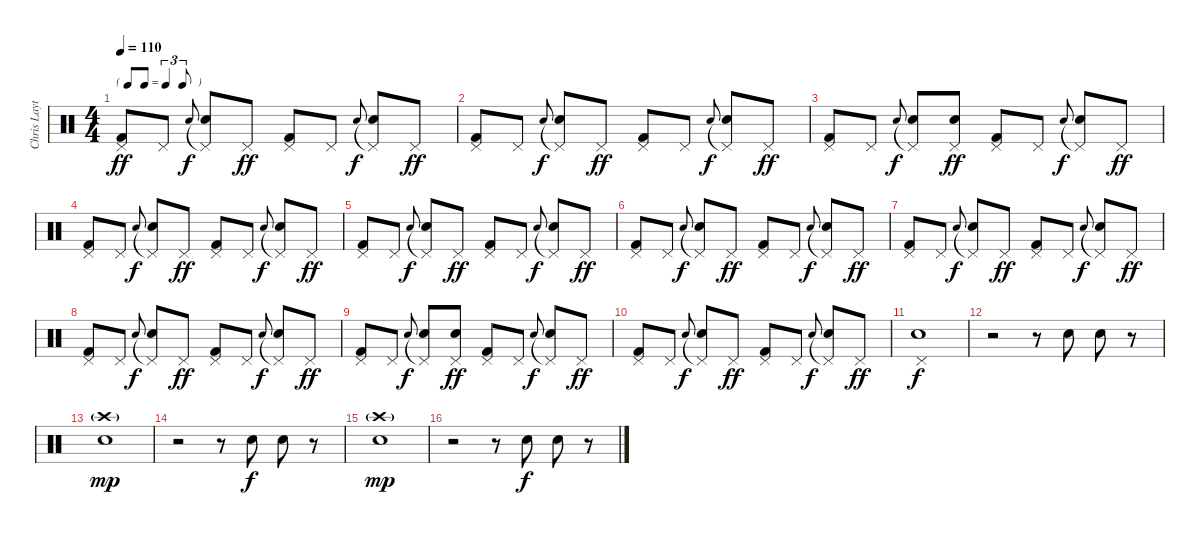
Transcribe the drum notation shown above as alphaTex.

\track ("Chris Layton" "Chris Layt") {instrument percussion}
\staff {score}
\articulation defaults
\ts (4 4)
\tf triplet8th
\tempo 110
\clef neutral
\ks c
("Pedal Hi-Hat (hit)" "Kick (hit) 2").8{dy ff} "Pedal Hi-Hat (hit)".8 "Snare (hit) 2".8{gr onbeat dy f} ("Pedal Hi-Hat (hit)"{t} "Snare (hit) 2").8 "Pedal Hi-Hat (hit)".8{dy ff} ("Pedal Hi-Hat (hit)" "Kick (hit) 2").8 "Pedal Hi-Hat (hit)".8 "Snare (hit) 2".8{gr onbeat dy f} ("Pedal Hi-Hat (hit)"{t} "Snare (hit) 2").8 "Pedal Hi-Hat (hit)".8{dy ff} |
("Pedal Hi-Hat (hit)" "Kick (hit) 2").8 "Pedal Hi-Hat (hit)".8 "Snare (hit) 2".8{gr onbeat dy f} ("Pedal Hi-Hat (hit)"{t} "Snare (hit) 2").8 "Pedal Hi-Hat (hit)".8{dy ff} ("Pedal Hi-Hat (hit)" "Kick (hit) 2").8 "Pedal Hi-Hat (hit)".8 "Snare (hit) 2".8{gr onbeat dy f} ("Pedal Hi-Hat (hit)"{t} "Snare (hit) 2").8 "Pedal Hi-Hat (hit)".8{dy ff} |
("Pedal Hi-Hat (hit)" "Kick (hit) 2").8 "Pedal Hi-Hat (hit)".8 "Snare (hit) 2".8{gr onbeat dy f} ("Pedal Hi-Hat (hit)"{t} "Snare (hit) 2").8 ("Pedal Hi-Hat (hit)" "Snare (hit) 2").8{dy ff} ("Pedal Hi-Hat (hit)" "Kick (hit) 2").8 "Pedal Hi-Hat (hit)".8 "Snare (hit) 2".8{gr onbeat dy f} ("Pedal Hi-Hat (hit)"{t} "Snare (hit) 2").8 "Pedal Hi-Hat (hit)".8{dy ff} |
("Pedal Hi-Hat (hit)" "Kick (hit) 2").8 "Pedal Hi-Hat (hit)".8 "Snare (hit) 2".8{gr onbeat dy f} ("Pedal Hi-Hat (hit)"{t} "Snare (hit) 2").8 "Pedal Hi-Hat (hit)".8{dy ff} ("Pedal Hi-Hat (hit)" "Kick (hit) 2").8 "Pedal Hi-Hat (hit)".8 "Snare (hit) 2".8{gr onbeat dy f} ("Pedal Hi-Hat (hit)"{t} "Snare (hit) 2").8 "Pedal Hi-Hat (hit)".8{dy ff} |
("Pedal Hi-Hat (hit)" "Kick (hit) 2").8 "Pedal Hi-Hat (hit)".8 "Snare (hit) 2".8{gr onbeat dy f} ("Pedal Hi-Hat (hit)"{t} "Snare (hit) 2").8 "Pedal Hi-Hat (hit)".8{dy ff} ("Pedal Hi-Hat (hit)" "Kick (hit) 2").8 "Pedal Hi-Hat (hit)".8 "Snare (hit) 2".8{gr onbeat dy f} ("Pedal Hi-Hat (hit)"{t} "Snare (hit) 2").8 "Pedal Hi-Hat (hit)".8{dy ff} |
("Pedal Hi-Hat (hit)" "Kick (hit) 2").8 "Pedal Hi-Hat (hit)".8 "Snare (hit) 2".8{gr onbeat dy f} ("Pedal Hi-Hat (hit)"{t} "Snare (hit) 2").8 "Pedal Hi-Hat (hit)".8{dy ff} ("Pedal Hi-Hat (hit)" "Kick (hit) 2").8 "Pedal Hi-Hat (hit)".8 "Snare (hit) 2".8{gr onbeat dy f} ("Pedal Hi-Hat (hit)"{t} "Snare (hit) 2").8 "Pedal Hi-Hat (hit)".8{dy ff} |
("Pedal Hi-Hat (hit)" "Kick (hit) 2").8 "Pedal Hi-Hat (hit)".8 "Snare (hit) 2".8{gr onbeat dy f} ("Pedal Hi-Hat (hit)"{t} "Snare (hit) 2").8 "Pedal Hi-Hat (hit)".8{dy ff} ("Pedal Hi-Hat (hit)" "Kick (hit) 2").8 "Pedal Hi-Hat (hit)".8 "Snare (hit) 2".8{gr onbeat dy f} ("Pedal Hi-Hat (hit)"{t} "Snare (hit) 2").8 "Pedal Hi-Hat (hit)".8{dy ff} |
("Pedal Hi-Hat (hit)" "Kick (hit) 2").8 "Pedal Hi-Hat (hit)".8 "Snare (hit) 2".8{gr onbeat dy f} ("Pedal Hi-Hat (hit)"{t} "Snare (hit) 2").8 "Pedal Hi-Hat (hit)".8{dy ff} ("Pedal Hi-Hat (hit)" "Kick (hit) 2").8 "Pedal Hi-Hat (hit)".8 "Snare (hit) 2".8{gr onbeat dy f} ("Pedal Hi-Hat (hit)"{t} "Snare (hit) 2").8 "Pedal Hi-Hat (hit)".8{dy ff} |
("Pedal Hi-Hat (hit)" "Kick (hit) 2").8 "Pedal Hi-Hat (hit)".8 "Snare (hit) 2".8{gr onbeat dy f} ("Pedal Hi-Hat (hit)"{t} "Snare (hit) 2").8 ("Pedal Hi-Hat (hit)" "Snare (hit) 2").8{dy ff} ("Pedal Hi-Hat (hit)" "Kick (hit) 2").8 "Pedal Hi-Hat (hit)".8 "Snare (hit) 2".8{gr onbeat dy f} ("Pedal Hi-Hat (hit)"{t} "Snare (hit) 2").8 "Pedal Hi-Hat (hit)".8{dy ff} |
("Pedal Hi-Hat (hit)" "Kick (hit) 2").8 "Pedal Hi-Hat (hit)".8 "Snare (hit) 2".8{gr onbeat dy f} ("Pedal Hi-Hat (hit)"{t} "Snare (hit) 2").8 "Pedal Hi-Hat (hit)".8{dy ff} ("Pedal Hi-Hat (hit)" "Kick (hit) 2").8 "Pedal Hi-Hat (hit)".8 "Snare (hit) 2".8{gr onbeat dy f} ("Pedal Hi-Hat (hit)"{t} "Snare (hit) 2").8 "Pedal Hi-Hat (hit)".8{dy ff} |
("Pedal Hi-Hat (hit)" "Snare (hit) 2").1{dy f} |
r.2 r.8 "Snare (hit) 2".8 "Snare (hit) 2".8 r.8 |
("Crash high (hit)"{g} "Snare (hit) 2").1{dy mp} |
r.2 r.8 "Snare (hit) 2".8{dy f} "Snare (hit) 2".8 r.8 |
("Crash high (hit)"{g} "Snare (hit) 2").1{dy mp} |
r.2 r.8 "Snare (hit) 2".8{dy f} "Snare (hit) 2".8 r.8
